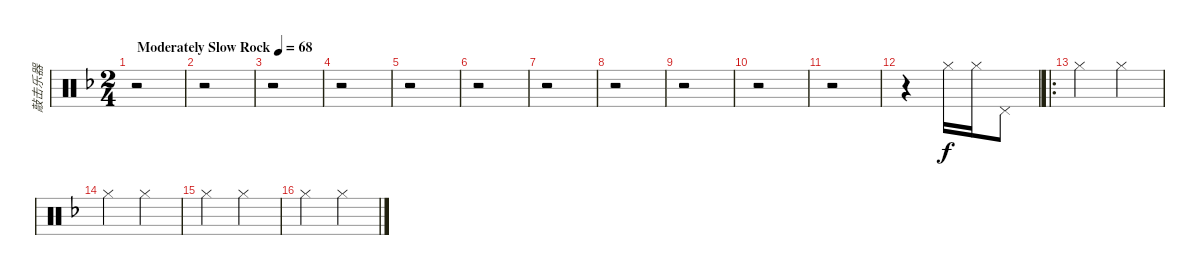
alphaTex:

\track ("敲击乐器" "敲击乐器") {instrument percussion}
\staff {score}
\articulation defaults
\ts (2 4)
\tempo (68 "Moderately Slow Rock")
\clef neutral
\ks f
r.2{dy f} |
r.2 |
r.2 |
r.2 |
r.2 |
r.2 |
r.2 |
r.2 |
r.2 |
r.2 |
r.2 |
r.4 "Hi-Hat (closed)".16 "Hi-Hat (closed)".16 "Pedal Hi-Hat (hit)".8 |
\ro "Hi-Hat (closed)".4 "Hi-Hat (closed)".4
|
"Hi-Hat (closed)".4 "Hi-Hat (closed)".4 |
"Hi-Hat (closed)".4 "Hi-Hat (closed)".4 |
"Hi-Hat (closed)".4 "Hi-Hat (closed)".4
